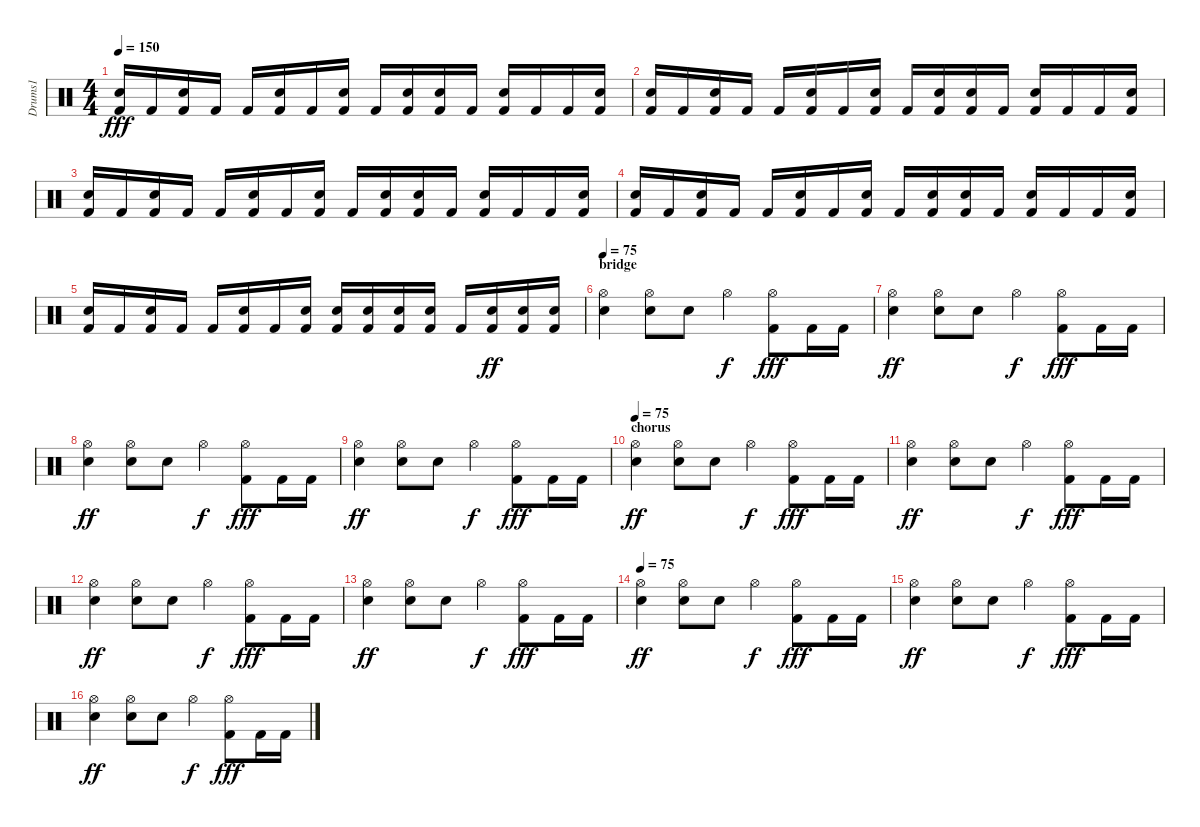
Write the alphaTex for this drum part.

\track ("Drums1" "Drums1") {instrument percussion}
\staff {score}
\articulation defaults
\ts (4 4)
\tempo 150
\clef neutral
\ks c
("Kick (hit) 2" "Electric Snare (hit)").16{dy fff} "Kick (hit) 2".16 ("Kick (hit) 2" "Electric Snare (hit)").16 "Kick (hit) 2".16 "Kick (hit) 2".16 ("Kick (hit) 2" "Electric Snare (hit)").16 "Kick (hit) 2".16 ("Kick (hit) 2" "Electric Snare (hit)").16 "Kick (hit) 2".16 ("Kick (hit) 2" "Electric Snare (hit)").16 ("Kick (hit) 2" "Electric Snare (hit)").16 "Kick (hit) 2".16 ("Kick (hit) 2" "Electric Snare (hit)").16 "Kick (hit) 2".16 "Kick (hit) 2".16 ("Kick (hit) 2" "Electric Snare (hit)").16 |
("Kick (hit) 2" "Electric Snare (hit)").16 "Kick (hit) 2".16 ("Kick (hit) 2" "Electric Snare (hit)").16 "Kick (hit) 2".16 "Kick (hit) 2".16 ("Kick (hit) 2" "Electric Snare (hit)").16 "Kick (hit) 2".16 ("Kick (hit) 2" "Electric Snare (hit)").16 "Kick (hit) 2".16 ("Kick (hit) 2" "Electric Snare (hit)").16 ("Kick (hit) 2" "Electric Snare (hit)").16 "Kick (hit) 2".16 ("Kick (hit) 2" "Electric Snare (hit)").16 "Kick (hit) 2".16 "Kick (hit) 2".16 ("Kick (hit) 2" "Electric Snare (hit)").16 |
("Kick (hit) 2" "Electric Snare (hit)").16 "Kick (hit) 2".16 ("Kick (hit) 2" "Electric Snare (hit)").16 "Kick (hit) 2".16 "Kick (hit) 2".16 ("Kick (hit) 2" "Electric Snare (hit)").16 "Kick (hit) 2".16 ("Kick (hit) 2" "Electric Snare (hit)").16 "Kick (hit) 2".16 ("Kick (hit) 2" "Electric Snare (hit)").16 ("Kick (hit) 2" "Electric Snare (hit)").16 "Kick (hit) 2".16 ("Kick (hit) 2" "Electric Snare (hit)").16 "Kick (hit) 2".16 "Kick (hit) 2".16 ("Kick (hit) 2" "Electric Snare (hit)").16 |
("Kick (hit) 2" "Electric Snare (hit)").16 "Kick (hit) 2".16 ("Kick (hit) 2" "Electric Snare (hit)").16 "Kick (hit) 2".16 "Kick (hit) 2".16 ("Kick (hit) 2" "Electric Snare (hit)").16 "Kick (hit) 2".16 ("Kick (hit) 2" "Electric Snare (hit)").16 "Kick (hit) 2".16 ("Kick (hit) 2" "Electric Snare (hit)").16 ("Kick (hit) 2" "Electric Snare (hit)").16 "Kick (hit) 2".16 ("Kick (hit) 2" "Electric Snare (hit)").16 "Kick (hit) 2".16 "Kick (hit) 2".16 ("Kick (hit) 2" "Electric Snare (hit)").16 |
("Kick (hit) 2" "Electric Snare (hit)").16 "Kick (hit) 2".16 ("Kick (hit) 2" "Electric Snare (hit)").16 "Kick (hit) 2".16 "Kick (hit) 2".16 ("Kick (hit) 2" "Electric Snare (hit)").16 "Kick (hit) 2".16 ("Kick (hit) 2" "Electric Snare (hit)").16 ("Kick (hit) 2" "Electric Snare (hit)").16 ("Kick (hit) 2" "Electric Snare (hit)").16 ("Kick (hit) 2" "Electric Snare (hit)").16 ("Kick (hit) 2" "Electric Snare (hit)").16 "Kick (hit) 2".16 ("Kick (hit) 2" "Electric Snare (hit)").16{dy ff} ("Kick (hit) 2" "Electric Snare (hit)").16 ("Kick (hit) 2" "Electric Snare (hit)").16 |
\section ("" "bridge")
\tempo 75
("Hi-Hat (open)" "Snare (hit) 2").4 ("Hi-Hat (open)" "Snare (hit) 2").8 "Snare (hit) 2".8 "Hi-Hat (open)".4{dy f} ("Hi-Hat (open)" "Kick (hit) 2").8{dy fff} "Kick (hit) 2".16 "Kick (hit) 2".16 |
("Hi-Hat (open)" "Snare (hit) 2").4{dy ff} ("Hi-Hat (open)" "Snare (hit) 2").8 "Snare (hit) 2".8 "Hi-Hat (open)".4{dy f} ("Hi-Hat (open)" "Kick (hit) 2").8{dy fff} "Kick (hit) 2".16 "Kick (hit) 2".16 |
("Hi-Hat (open)" "Snare (hit) 2").4{dy ff} ("Hi-Hat (open)" "Snare (hit) 2").8 "Snare (hit) 2".8 "Hi-Hat (open)".4{dy f} ("Hi-Hat (open)" "Kick (hit) 2").8{dy fff} "Kick (hit) 2".16 "Kick (hit) 2".16 |
("Hi-Hat (open)" "Snare (hit) 2").4{dy ff} ("Hi-Hat (open)" "Snare (hit) 2").8 "Snare (hit) 2".8 "Hi-Hat (open)".4{dy f} ("Hi-Hat (open)" "Kick (hit) 2").8{dy fff} "Kick (hit) 2".16 "Kick (hit) 2".16 |
\section ("" "chorus")
\tempo 75
("Hi-Hat (open)" "Snare (hit) 2").4{dy ff} ("Hi-Hat (open)" "Snare (hit) 2").8 "Snare (hit) 2".8 "Hi-Hat (open)".4{dy f} ("Hi-Hat (open)" "Kick (hit) 2").8{dy fff} "Kick (hit) 2".16 "Kick (hit) 2".16 |
("Hi-Hat (open)" "Snare (hit) 2").4{dy ff} ("Hi-Hat (open)" "Snare (hit) 2").8 "Snare (hit) 2".8 "Hi-Hat (open)".4{dy f} ("Hi-Hat (open)" "Kick (hit) 2").8{dy fff} "Kick (hit) 2".16 "Kick (hit) 2".16 |
("Hi-Hat (open)" "Snare (hit) 2").4{dy ff} ("Hi-Hat (open)" "Snare (hit) 2").8 "Snare (hit) 2".8 "Hi-Hat (open)".4{dy f} ("Hi-Hat (open)" "Kick (hit) 2").8{dy fff} "Kick (hit) 2".16 "Kick (hit) 2".16 |
("Hi-Hat (open)" "Snare (hit) 2").4{dy ff} ("Hi-Hat (open)" "Snare (hit) 2").8 "Snare (hit) 2".8 "Hi-Hat (open)".4{dy f} ("Hi-Hat (open)" "Kick (hit) 2").8{dy fff} "Kick (hit) 2".16 "Kick (hit) 2".16 |
\tempo 75
("Hi-Hat (open)" "Snare (hit) 2").4{dy ff} ("Hi-Hat (open)" "Snare (hit) 2").8 "Snare (hit) 2".8 "Hi-Hat (open)".4{dy f} ("Hi-Hat (open)" "Kick (hit) 2").8{dy fff} "Kick (hit) 2".16 "Kick (hit) 2".16 |
("Hi-Hat (open)" "Snare (hit) 2").4{dy ff} ("Hi-Hat (open)" "Snare (hit) 2").8 "Snare (hit) 2".8 "Hi-Hat (open)".4{dy f} ("Hi-Hat (open)" "Kick (hit) 2").8{dy fff} "Kick (hit) 2".16 "Kick (hit) 2".16 |
("Hi-Hat (open)" "Snare (hit) 2").4{dy ff} ("Hi-Hat (open)" "Snare (hit) 2").8 "Snare (hit) 2".8 "Hi-Hat (open)".4{dy f} ("Hi-Hat (open)" "Kick (hit) 2").8{dy fff} "Kick (hit) 2".16 "Kick (hit) 2".16
